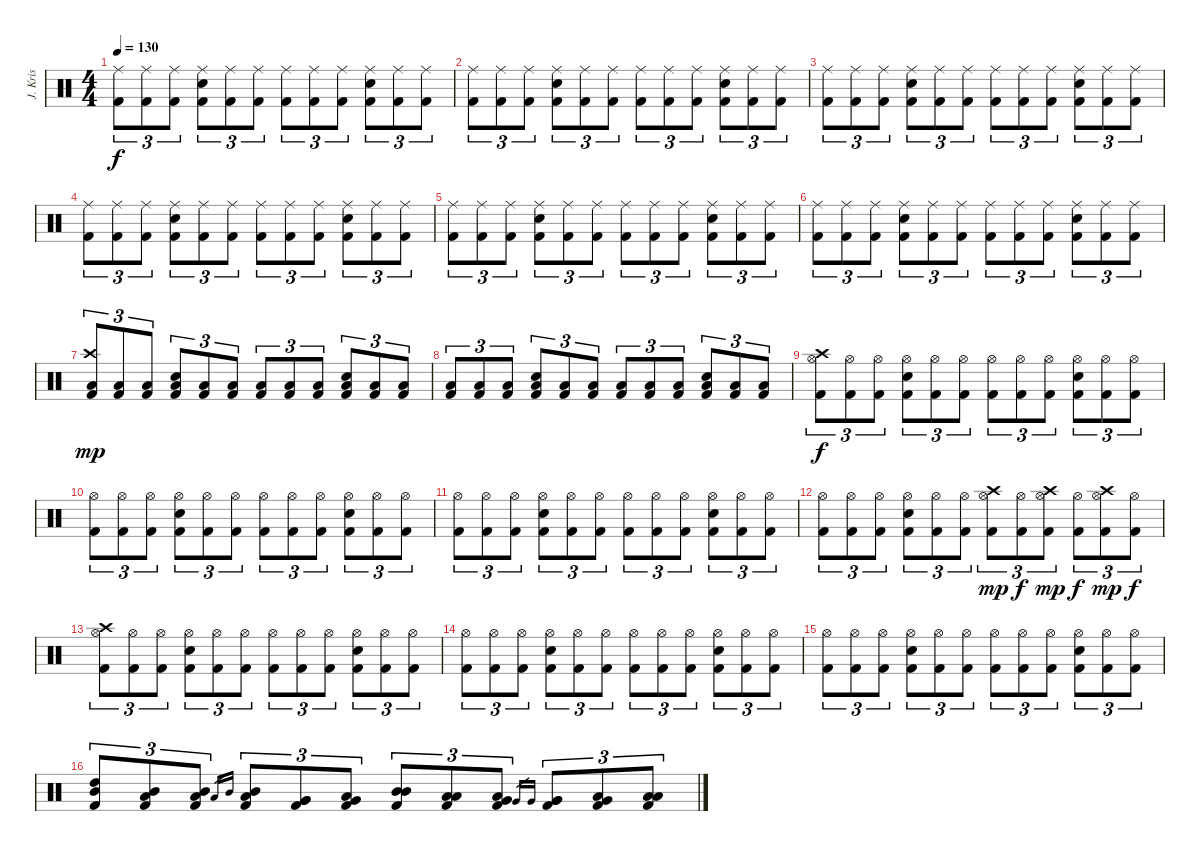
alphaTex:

\track ("   J. Kristensson (drums)" "   J. Kris") {instrument percussion}
\staff {score}
\articulation defaults
\ts (4 4)
\tempo 130
\clef neutral
\ks c
("Ride (middle)" "Kick (hit) 2").8{tu (3 2) dy f} ("Ride (middle)" "Kick (hit) 2").8{tu (3 2)} ("Ride (middle)" "Kick (hit) 2").8{tu (3 2)} ("Ride (middle)" "Electric Snare (hit)" "Kick (hit) 2").8{tu (3 2)} ("Ride (middle)" "Kick (hit) 2").8{tu (3 2)} ("Ride (middle)" "Kick (hit) 2").8{tu (3 2)} ("Ride (middle)" "Kick (hit) 2").8{tu (3 2)} ("Ride (middle)" "Kick (hit) 2").8{tu (3 2)} ("Ride (middle)" "Kick (hit) 2").8{tu (3 2)} ("Ride (middle)" "Electric Snare (hit)" "Kick (hit) 2").8{tu (3 2)} ("Ride (middle)" "Kick (hit) 2").8{tu (3 2)} ("Ride (middle)" "Kick (hit) 2").8{tu (3 2)} |
("Ride (middle)" "Kick (hit) 2").8{tu (3 2)} ("Ride (middle)" "Kick (hit) 2").8{tu (3 2)} ("Ride (middle)" "Kick (hit) 2").8{tu (3 2)} ("Ride (middle)" "Electric Snare (hit)" "Kick (hit) 2").8{tu (3 2)} ("Ride (middle)" "Kick (hit) 2").8{tu (3 2)} ("Ride (middle)" "Kick (hit) 2").8{tu (3 2)} ("Ride (middle)" "Kick (hit) 2").8{tu (3 2)} ("Ride (middle)" "Kick (hit) 2").8{tu (3 2)} ("Ride (middle)" "Kick (hit) 2").8{tu (3 2)} ("Ride (middle)" "Electric Snare (hit)" "Kick (hit) 2").8{tu (3 2)} ("Ride (middle)" "Kick (hit) 2").8{tu (3 2)} ("Ride (middle)" "Kick (hit) 2").8{tu (3 2)} |
("Ride (middle)" "Kick (hit) 2").8{tu (3 2)} ("Ride (middle)" "Kick (hit) 2").8{tu (3 2)} ("Ride (middle)" "Kick (hit) 2").8{tu (3 2)} ("Ride (middle)" "Electric Snare (hit)" "Kick (hit) 2").8{tu (3 2)} ("Ride (middle)" "Kick (hit) 2").8{tu (3 2)} ("Ride (middle)" "Kick (hit) 2").8{tu (3 2)} ("Ride (middle)" "Kick (hit) 2").8{tu (3 2)} ("Ride (middle)" "Kick (hit) 2").8{tu (3 2)} ("Ride (middle)" "Kick (hit) 2").8{tu (3 2)} ("Ride (middle)" "Electric Snare (hit)" "Kick (hit) 2").8{tu (3 2)} ("Ride (middle)" "Kick (hit) 2").8{tu (3 2)} ("Ride (middle)" "Kick (hit) 2").8{tu (3 2)} |
("Ride (middle)" "Kick (hit) 2").8{tu (3 2)} ("Ride (middle)" "Kick (hit) 2").8{tu (3 2)} ("Ride (middle)" "Kick (hit) 2").8{tu (3 2)} ("Ride (middle)" "Electric Snare (hit)" "Kick (hit) 2").8{tu (3 2)} ("Ride (middle)" "Kick (hit) 2").8{tu (3 2)} ("Ride (middle)" "Kick (hit) 2").8{tu (3 2)} ("Ride (middle)" "Kick (hit) 2").8{tu (3 2)} ("Ride (middle)" "Kick (hit) 2").8{tu (3 2)} ("Ride (middle)" "Kick (hit) 2").8{tu (3 2)} ("Ride (middle)" "Electric Snare (hit)" "Kick (hit) 2").8{tu (3 2)} ("Ride (middle)" "Kick (hit) 2").8{tu (3 2)} ("Ride (middle)" "Kick (hit) 2").8{tu (3 2)} |
("Ride (middle)" "Kick (hit) 2").8{tu (3 2)} ("Ride (middle)" "Kick (hit) 2").8{tu (3 2)} ("Ride (middle)" "Kick (hit) 2").8{tu (3 2)} ("Ride (middle)" "Electric Snare (hit)" "Kick (hit) 2").8{tu (3 2)} ("Ride (middle)" "Kick (hit) 2").8{tu (3 2)} ("Ride (middle)" "Kick (hit) 2").8{tu (3 2)} ("Ride (middle)" "Kick (hit) 2").8{tu (3 2)} ("Ride (middle)" "Kick (hit) 2").8{tu (3 2)} ("Ride (middle)" "Kick (hit) 2").8{tu (3 2)} ("Ride (middle)" "Electric Snare (hit)" "Kick (hit) 2").8{tu (3 2)} ("Ride (middle)" "Kick (hit) 2").8{tu (3 2)} ("Ride (middle)" "Kick (hit) 2").8{tu (3 2)} |
("Ride (middle)" "Kick (hit) 2").8{tu (3 2)} ("Ride (middle)" "Kick (hit) 2").8{tu (3 2)} ("Ride (middle)" "Kick (hit) 2").8{tu (3 2)} ("Ride (middle)" "Electric Snare (hit)" "Kick (hit) 2").8{tu (3 2)} ("Ride (middle)" "Kick (hit) 2").8{tu (3 2)} ("Ride (middle)" "Kick (hit) 2").8{tu (3 2)} ("Ride (middle)" "Kick (hit) 2").8{tu (3 2)} ("Ride (middle)" "Kick (hit) 2").8{tu (3 2)} ("Ride (middle)" "Kick (hit) 2").8{tu (3 2)} ("Ride (middle)" "Electric Snare (hit)" "Kick (hit) 2").8{tu (3 2)} ("Ride (middle)" "Kick (hit) 2").8{tu (3 2)} ("Ride (middle)" "Kick (hit) 2").8{tu (3 2)} |
("Crash high (hit)" "Low Tom (hit)" "Kick (hit) 2").8{tu (3 2) dy mp} ("Low Tom (hit)" "Kick (hit) 2").8{tu (3 2)} ("Low Tom (hit)" "Kick (hit) 2").8{tu (3 2)} ("Low Tom (hit)" "Electric Snare (hit)" "Kick (hit) 2").8{tu (3 2)} ("Low Tom (hit)" "Kick (hit) 2").8{tu (3 2)} ("Low Tom (hit)" "Kick (hit) 2").8{tu (3 2)} ("Low Tom (hit)" "Kick (hit) 2").8{tu (3 2)} ("Low Tom (hit)" "Kick (hit) 2").8{tu (3 2)} ("Low Tom (hit)" "Kick (hit) 2").8{tu (3 2)} ("Low Tom (hit)" "Electric Snare (hit)" "Kick (hit) 2").8{tu (3 2)} ("Low Tom (hit)" "Kick (hit) 2").8{tu (3 2)} ("Low Tom (hit)" "Kick (hit) 2").8{tu (3 2)} |
("Low Tom (hit)" "Kick (hit) 2").8{tu (3 2)} ("Low Tom (hit)" "Kick (hit) 2").8{tu (3 2)} ("Low Tom (hit)" "Kick (hit) 2").8{tu (3 2)} ("Low Tom (hit)" "Electric Snare (hit)" "Kick (hit) 2").8{tu (3 2)} ("Low Tom (hit)" "Kick (hit) 2").8{tu (3 2)} ("Low Tom (hit)" "Kick (hit) 2").8{tu (3 2)} ("Low Tom (hit)" "Kick (hit) 2").8{tu (3 2)} ("Low Tom (hit)" "Kick (hit) 2").8{tu (3 2)} ("Low Tom (hit)" "Kick (hit) 2").8{tu (3 2)} ("Low Tom (hit)" "Electric Snare (hit)" "Kick (hit) 2").8{tu (3 2)} ("Low Tom (hit)" "Kick (hit) 2").8{tu (3 2)} ("Low Tom (hit)" "Kick (hit) 2").8{tu (3 2)} |
("Hi-Hat (open)" "Crash high (hit)" "Kick (hit) 2").8{tu (3 2) dy f} ("Hi-Hat (open)" "Kick (hit) 2").8{tu (3 2)} ("Hi-Hat (open)" "Kick (hit) 2").8{tu (3 2)} ("Hi-Hat (open)" "Electric Snare (hit)" "Kick (hit) 2").8{tu (3 2)} ("Hi-Hat (open)" "Kick (hit) 2").8{tu (3 2)} ("Hi-Hat (open)" "Kick (hit) 2").8{tu (3 2)} ("Hi-Hat (open)" "Kick (hit) 2").8{tu (3 2)} ("Hi-Hat (open)" "Kick (hit) 2").8{tu (3 2)} ("Hi-Hat (open)" "Kick (hit) 2").8{tu (3 2)} ("Hi-Hat (open)" "Electric Snare (hit)" "Kick (hit) 2").8{tu (3 2)} ("Hi-Hat (open)" "Kick (hit) 2").8{tu (3 2)} ("Hi-Hat (open)" "Kick (hit) 2").8{tu (3 2)} |
("Hi-Hat (open)" "Kick (hit) 2").8{tu (3 2)} ("Hi-Hat (open)" "Kick (hit) 2").8{tu (3 2)} ("Hi-Hat (open)" "Kick (hit) 2").8{tu (3 2)} ("Hi-Hat (open)" "Electric Snare (hit)" "Kick (hit) 2").8{tu (3 2)} ("Hi-Hat (open)" "Kick (hit) 2").8{tu (3 2)} ("Hi-Hat (open)" "Kick (hit) 2").8{tu (3 2)} ("Hi-Hat (open)" "Kick (hit) 2").8{tu (3 2)} ("Hi-Hat (open)" "Kick (hit) 2").8{tu (3 2)} ("Hi-Hat (open)" "Kick (hit) 2").8{tu (3 2)} ("Hi-Hat (open)" "Electric Snare (hit)" "Kick (hit) 2").8{tu (3 2)} ("Hi-Hat (open)" "Kick (hit) 2").8{tu (3 2)} ("Hi-Hat (open)" "Kick (hit) 2").8{tu (3 2)} |
("Hi-Hat (open)" "Kick (hit) 2").8{tu (3 2)} ("Hi-Hat (open)" "Kick (hit) 2").8{tu (3 2)} ("Hi-Hat (open)" "Kick (hit) 2").8{tu (3 2)} ("Hi-Hat (open)" "Electric Snare (hit)" "Kick (hit) 2").8{tu (3 2)} ("Hi-Hat (open)" "Kick (hit) 2").8{tu (3 2)} ("Hi-Hat (open)" "Kick (hit) 2").8{tu (3 2)} ("Hi-Hat (open)" "Kick (hit) 2").8{tu (3 2)} ("Hi-Hat (open)" "Kick (hit) 2").8{tu (3 2)} ("Hi-Hat (open)" "Kick (hit) 2").8{tu (3 2)} ("Hi-Hat (open)" "Electric Snare (hit)" "Kick (hit) 2").8{tu (3 2)} ("Hi-Hat (open)" "Kick (hit) 2").8{tu (3 2)} ("Hi-Hat (open)" "Kick (hit) 2").8{tu (3 2)} |
("Hi-Hat (open)" "Kick (hit) 2").8{tu (3 2)} ("Hi-Hat (open)" "Kick (hit) 2").8{tu (3 2)} ("Hi-Hat (open)" "Kick (hit) 2").8{tu (3 2)} ("Hi-Hat (open)" "Electric Snare (hit)" "Kick (hit) 2").8{tu (3 2)} ("Hi-Hat (open)" "Kick (hit) 2").8{tu (3 2)} ("Hi-Hat (open)" "Kick (hit) 2").8{tu (3 2)} ("Hi-Hat (open)" "Crash high (hit)" "Kick (hit) 2").8{tu (3 2) dy mp} ("Hi-Hat (open)" "Kick (hit) 2").8{tu (3 2) dy f} ("Hi-Hat (open)" "Crash high (hit)" "Kick (hit) 2").8{tu (3 2) dy mp} ("Hi-Hat (open)" "Kick (hit) 2").8{tu (3 2) dy f} ("Hi-Hat (open)" "Crash high (hit)" "Kick (hit) 2").8{tu (3 2) dy mp} ("Hi-Hat (open)" "Kick (hit) 2").8{tu (3 2) dy f} |
("Hi-Hat (open)" "Crash high (hit)" "Kick (hit) 2").8{tu (3 2)} ("Hi-Hat (open)" "Kick (hit) 2").8{tu (3 2)} ("Hi-Hat (open)" "Kick (hit) 2").8{tu (3 2)} ("Hi-Hat (open)" "Electric Snare (hit)" "Kick (hit) 2").8{tu (3 2)} ("Hi-Hat (open)" "Kick (hit) 2").8{tu (3 2)} ("Hi-Hat (open)" "Kick (hit) 2").8{tu (3 2)} ("Hi-Hat (open)" "Kick (hit) 2").8{tu (3 2)} ("Hi-Hat (open)" "Kick (hit) 2").8{tu (3 2)} ("Hi-Hat (open)" "Kick (hit) 2").8{tu (3 2)} ("Hi-Hat (open)" "Electric Snare (hit)" "Kick (hit) 2").8{tu (3 2)} ("Hi-Hat (open)" "Kick (hit) 2").8{tu (3 2)} ("Hi-Hat (open)" "Kick (hit) 2").8{tu (3 2)} |
("Hi-Hat (open)" "Kick (hit) 2").8{tu (3 2)} ("Hi-Hat (open)" "Kick (hit) 2").8{tu (3 2)} ("Hi-Hat (open)" "Kick (hit) 2").8{tu (3 2)} ("Hi-Hat (open)" "Electric Snare (hit)" "Kick (hit) 2").8{tu (3 2)} ("Hi-Hat (open)" "Kick (hit) 2").8{tu (3 2)} ("Hi-Hat (open)" "Kick (hit) 2").8{tu (3 2)} ("Hi-Hat (open)" "Kick (hit) 2").8{tu (3 2)} ("Hi-Hat (open)" "Kick (hit) 2").8{tu (3 2)} ("Hi-Hat (open)" "Kick (hit) 2").8{tu (3 2)} ("Hi-Hat (open)" "Electric Snare (hit)" "Kick (hit) 2").8{tu (3 2)} ("Hi-Hat (open)" "Kick (hit) 2").8{tu (3 2)} ("Hi-Hat (open)" "Kick (hit) 2").8{tu (3 2)} |
("Hi-Hat (open)" "Kick (hit) 2").8{tu (3 2)} ("Hi-Hat (open)" "Kick (hit) 2").8{tu (3 2)} ("Hi-Hat (open)" "Kick (hit) 2").8{tu (3 2)} ("Hi-Hat (open)" "Electric Snare (hit)" "Kick (hit) 2").8{tu (3 2)} ("Hi-Hat (open)" "Kick (hit) 2").8{tu (3 2)} ("Hi-Hat (open)" "Kick (hit) 2").8{tu (3 2)} ("Hi-Hat (open)" "Kick (hit) 2").8{tu (3 2)} ("Hi-Hat (open)" "Kick (hit) 2").8{tu (3 2)} ("Hi-Hat (open)" "Kick (hit) 2").8{tu (3 2)} ("Hi-Hat (open)" "Electric Snare (hit)" "Kick (hit) 2").8{tu (3 2)} ("Hi-Hat (open)" "Kick (hit) 2").8{tu (3 2)} ("Hi-Hat (open)" "Kick (hit) 2").8{tu (3 2)} |
("High Tom (hit)" "Mid Tom (hit)" "Kick (hit) 2").8{tu (3 2)} ("Mid Tom (hit)" "Low Tom (hit)" "Kick (hit) 2").8{tu (3 2)} ("Low Tom (hit)" "Mid Tom (hit)" "Kick (hit) 2").8{tu (3 2)} "Low Tom (hit)".16{gr} "Mid Tom (hit)".16{gr} ("Low Tom (hit)" "Mid Tom (hit)" "Kick (hit) 2").8{tu (3 2)} ("Very Low Tom (hit)" "Very Low Tom (hit)" "Kick (hit) 2").8{tu (3 2)} ("Low Floor Tom (hit)" "Very Low Tom (hit)" "Kick (hit) 2").8{tu (3 2)} ("Mid Tom (hit)" "Mid Tom (hit)" "Kick (hit) 2").8{tu (3 2)} ("Low Tom (hit)" "Low Tom (hit)" "Kick (hit) 2").8{tu (3 2)} ("Very Low Tom (hit)" "Low Tom (hit)" "Kick (hit) 2").8{tu (3 2)} "Very Low Tom (hit)".16{gr} "Very Low Tom (hit)".16{gr} ("Very Low Tom (hit)" "Very Low Tom (hit)" "Kick (hit) 2").8{tu (3 2)} ("Low Floor Tom (hit)" "Very Low Tom (hit)" "Kick (hit) 2").8{tu (3 2)} ("Low Floor Tom (hit)" "Low Floor Tom (hit)" "Kick (hit) 2").8{tu (3 2)}
